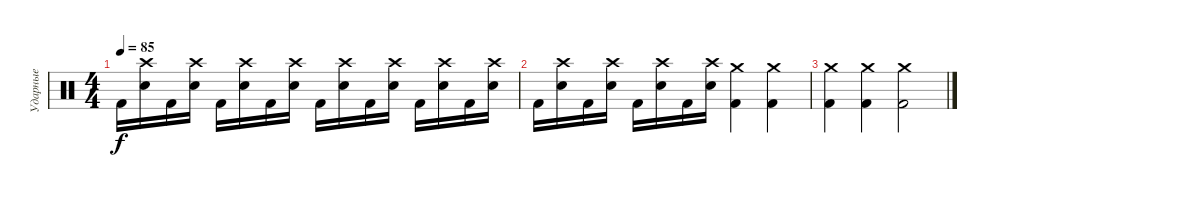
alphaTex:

\track ("Ударные" "Ударные") {instrument percussion}
\staff {score}
\articulation defaults
\ts (4 4)
\tempo 85
\clef neutral
\ks c "Kick (hit) 2".16{dy f}
("Crash high (hit)" "Electric Snare (hit)").16 "Kick (hit) 2".16 ("Crash high (hit)" "Electric Snare (hit)").16 "Kick (hit) 2".16 ("Crash high (hit)" "Electric Snare (hit)").16 "Kick (hit) 2".16 ("Crash high (hit)" "Electric Snare (hit)").16 "Kick (hit) 2".16 ("Crash high (hit)" "Electric Snare (hit)").16 "Kick (hit) 2".16 ("Crash high (hit)" "Electric Snare (hit)").16 "Kick (hit) 2".16 ("Crash high (hit)" "Electric Snare (hit)").16 "Kick (hit) 2".16 ("Crash high (hit)" "Electric Snare (hit)").16 |
"Kick (hit) 2".16 ("Crash high (hit)" "Electric Snare (hit)").16 "Kick (hit) 2".16 ("Crash high (hit)" "Electric Snare (hit)").16 "Kick (hit) 2".16 ("Crash high (hit)" "Electric Snare (hit)").16 "Kick (hit) 2".16 ("Crash high (hit)" "Electric Snare (hit)").16 ("Crash medium (hit)" "Kick (hit) 2").4 ("Crash medium (hit)" "Kick (hit) 2").4 |
("Crash medium (hit)" "Kick (hit) 2").4 ("Crash medium (hit)" "Kick (hit) 2").4 ("Crash medium (hit)" "Kick (hit) 2").2
